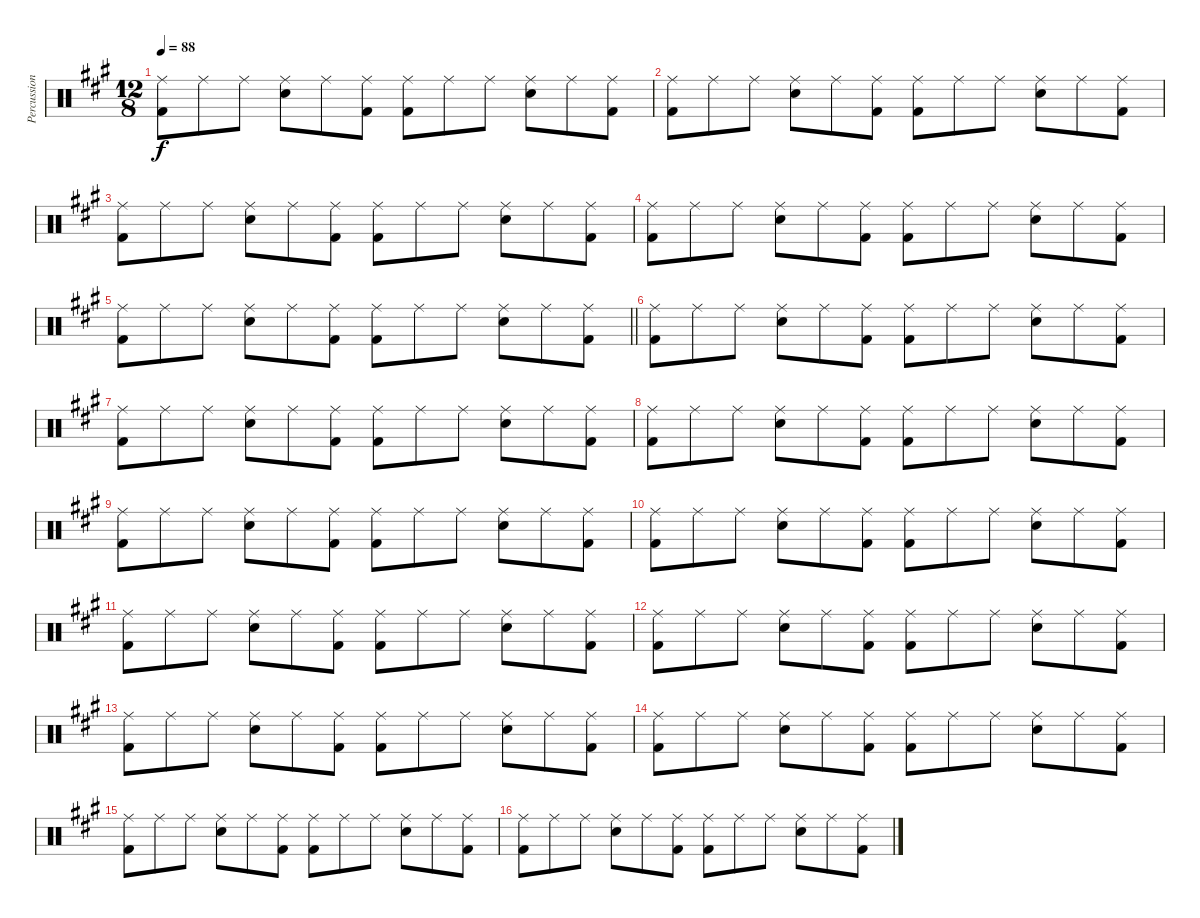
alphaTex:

\track ("Percussion" "Percussion") {instrument percussion}
\staff {score}
\articulation defaults
\ts (12 8)
\tempo 88
\clef neutral
\ks a
("Ride (middle)" "Kick (hit) 2").8{dy f} "Ride (middle)".8 "Ride (middle)".8 ("Ride (middle)" "Snare (hit) 2").8 "Ride (middle)".8 ("Ride (middle)" "Kick (hit) 2").8 ("Ride (middle)" "Kick (hit) 2").8 "Ride (middle)".8 "Ride (middle)".8 ("Ride (middle)" "Snare (hit) 2").8 "Ride (middle)".8 ("Ride (middle)" "Kick (hit) 2").8 |
("Ride (middle)" "Kick (hit) 2").8 "Ride (middle)".8 "Ride (middle)".8 ("Ride (middle)" "Snare (hit) 2").8 "Ride (middle)".8 ("Ride (middle)" "Kick (hit) 2").8 ("Ride (middle)" "Kick (hit) 2").8 "Ride (middle)".8 "Ride (middle)".8 ("Ride (middle)" "Snare (hit) 2").8 "Ride (middle)".8 ("Ride (middle)" "Kick (hit) 2").8 |
("Ride (middle)" "Kick (hit) 2").8 "Ride (middle)".8 "Ride (middle)".8 ("Ride (middle)" "Snare (hit) 2").8 "Ride (middle)".8 ("Ride (middle)" "Kick (hit) 2").8 ("Ride (middle)" "Kick (hit) 2").8 "Ride (middle)".8 "Ride (middle)".8 ("Ride (middle)" "Snare (hit) 2").8 "Ride (middle)".8 ("Ride (middle)" "Kick (hit) 2").8 |
("Ride (middle)" "Kick (hit) 2").8 "Ride (middle)".8 "Ride (middle)".8 ("Ride (middle)" "Snare (hit) 2").8 "Ride (middle)".8 ("Ride (middle)" "Kick (hit) 2").8 ("Ride (middle)" "Kick (hit) 2").8 "Ride (middle)".8 "Ride (middle)".8 ("Ride (middle)" "Snare (hit) 2").8 "Ride (middle)".8 ("Ride (middle)" "Kick (hit) 2").8 |
\barLineRight lightlight
("Ride (middle)" "Kick (hit) 2").8 "Ride (middle)".8 "Ride (middle)".8 ("Ride (middle)" "Snare (hit) 2").8 "Ride (middle)".8 ("Ride (middle)" "Kick (hit) 2").8 ("Ride (middle)" "Kick (hit) 2").8 "Ride (middle)".8 "Ride (middle)".8 ("Ride (middle)" "Snare (hit) 2").8 "Ride (middle)".8 ("Ride (middle)" "Kick (hit) 2").8 |
("Ride (middle)" "Kick (hit) 2").8 "Ride (middle)".8 "Ride (middle)".8 ("Ride (middle)" "Snare (hit) 2").8 "Ride (middle)".8 ("Ride (middle)" "Kick (hit) 2").8 ("Ride (middle)" "Kick (hit) 2").8 "Ride (middle)".8 "Ride (middle)".8 ("Ride (middle)" "Snare (hit) 2").8 "Ride (middle)".8 ("Ride (middle)" "Kick (hit) 2").8 |
("Ride (middle)" "Kick (hit) 2").8 "Ride (middle)".8 "Ride (middle)".8 ("Ride (middle)" "Snare (hit) 2").8 "Ride (middle)".8 ("Ride (middle)" "Kick (hit) 2").8 ("Ride (middle)" "Kick (hit) 2").8 "Ride (middle)".8 "Ride (middle)".8 ("Ride (middle)" "Snare (hit) 2").8 "Ride (middle)".8 ("Ride (middle)" "Kick (hit) 2").8 |
("Ride (middle)" "Kick (hit) 2").8 "Ride (middle)".8 "Ride (middle)".8 ("Ride (middle)" "Snare (hit) 2").8 "Ride (middle)".8 ("Ride (middle)" "Kick (hit) 2").8 ("Ride (middle)" "Kick (hit) 2").8 "Ride (middle)".8 "Ride (middle)".8 ("Ride (middle)" "Snare (hit) 2").8 "Ride (middle)".8 ("Ride (middle)" "Kick (hit) 2").8 |
("Ride (middle)" "Kick (hit) 2").8 "Ride (middle)".8 "Ride (middle)".8 ("Ride (middle)" "Snare (hit) 2").8 "Ride (middle)".8 ("Ride (middle)" "Kick (hit) 2").8 ("Ride (middle)" "Kick (hit) 2").8 "Ride (middle)".8 "Ride (middle)".8 ("Ride (middle)" "Snare (hit) 2").8 "Ride (middle)".8 ("Ride (middle)" "Kick (hit) 2").8 |
("Ride (middle)" "Kick (hit) 2").8 "Ride (middle)".8 "Ride (middle)".8 ("Ride (middle)" "Snare (hit) 2").8 "Ride (middle)".8 ("Ride (middle)" "Kick (hit) 2").8 ("Ride (middle)" "Kick (hit) 2").8 "Ride (middle)".8 "Ride (middle)".8 ("Ride (middle)" "Snare (hit) 2").8 "Ride (middle)".8 ("Ride (middle)" "Kick (hit) 2").8 |
("Ride (middle)" "Kick (hit) 2").8 "Ride (middle)".8 "Ride (middle)".8 ("Ride (middle)" "Snare (hit) 2").8 "Ride (middle)".8 ("Ride (middle)" "Kick (hit) 2").8 ("Ride (middle)" "Kick (hit) 2").8 "Ride (middle)".8 "Ride (middle)".8 ("Ride (middle)" "Snare (hit) 2").8 "Ride (middle)".8 ("Ride (middle)" "Kick (hit) 2").8 |
("Ride (middle)" "Kick (hit) 2").8 "Ride (middle)".8 "Ride (middle)".8 ("Ride (middle)" "Snare (hit) 2").8 "Ride (middle)".8 ("Ride (middle)" "Kick (hit) 2").8 ("Ride (middle)" "Kick (hit) 2").8 "Ride (middle)".8 "Ride (middle)".8 ("Ride (middle)" "Snare (hit) 2").8 "Ride (middle)".8 ("Ride (middle)" "Kick (hit) 2").8 |
("Ride (middle)" "Kick (hit) 2").8 "Ride (middle)".8 "Ride (middle)".8 ("Ride (middle)" "Snare (hit) 2").8 "Ride (middle)".8 ("Ride (middle)" "Kick (hit) 2").8 ("Ride (middle)" "Kick (hit) 2").8 "Ride (middle)".8 "Ride (middle)".8 ("Ride (middle)" "Snare (hit) 2").8 "Ride (middle)".8 ("Ride (middle)" "Kick (hit) 2").8 |
("Ride (middle)" "Kick (hit) 2").8 "Ride (middle)".8 "Ride (middle)".8 ("Ride (middle)" "Snare (hit) 2").8 "Ride (middle)".8 ("Ride (middle)" "Kick (hit) 2").8 ("Ride (middle)" "Kick (hit) 2").8 "Ride (middle)".8 "Ride (middle)".8 ("Ride (middle)" "Snare (hit) 2").8 "Ride (middle)".8 ("Ride (middle)" "Kick (hit) 2").8 |
("Ride (middle)" "Kick (hit) 2").8 "Ride (middle)".8 "Ride (middle)".8 ("Ride (middle)" "Snare (hit) 2").8 "Ride (middle)".8 ("Ride (middle)" "Kick (hit) 2").8 ("Ride (middle)" "Kick (hit) 2").8 "Ride (middle)".8 "Ride (middle)".8 ("Ride (middle)" "Snare (hit) 2").8 "Ride (middle)".8 ("Ride (middle)" "Kick (hit) 2").8 |
("Ride (middle)" "Kick (hit) 2").8 "Ride (middle)".8 "Ride (middle)".8 ("Ride (middle)" "Snare (hit) 2").8 "Ride (middle)".8 ("Ride (middle)" "Kick (hit) 2").8 ("Ride (middle)" "Kick (hit) 2").8 "Ride (middle)".8 "Ride (middle)".8 ("Ride (middle)" "Snare (hit) 2").8 "Ride (middle)".8 ("Ride (middle)" "Kick (hit) 2").8
